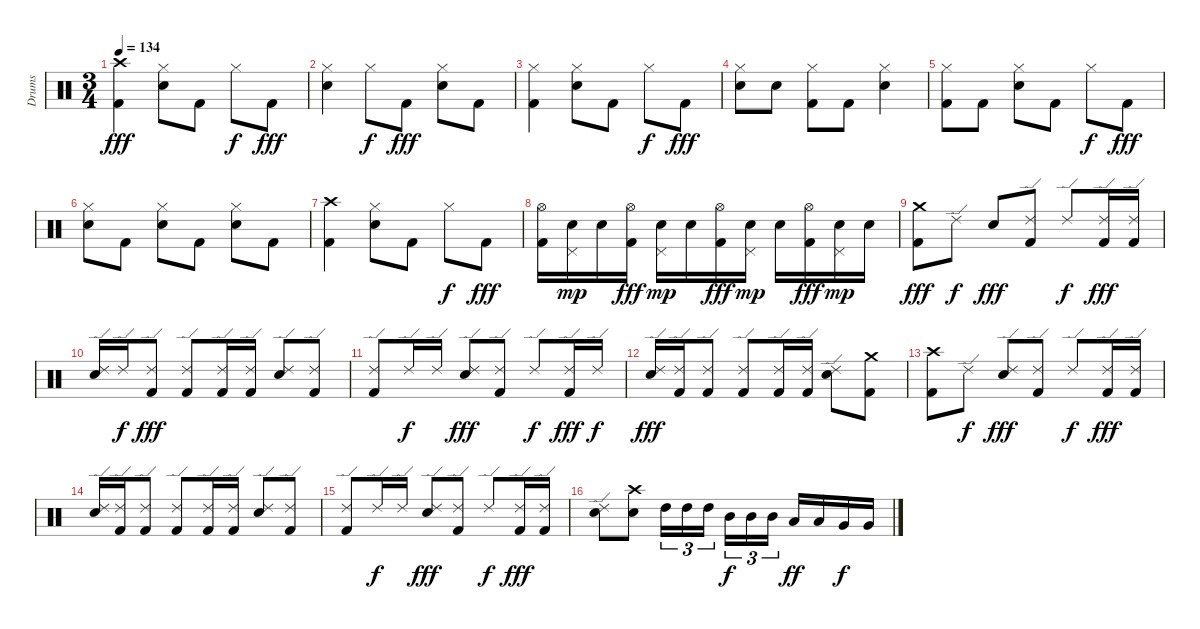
\track ("Drums" "Drums") {instrument percussion}
\staff {score}
\articulation defaults
\ts (3 4)
\tempo 134
\clef neutral
\ks c
("Kick (hit) 2" "Crash high (hit)").4{dy fff} ("Hi-Hat (closed)" "Snare (hit) 2").8 "Kick (hit) 2".8 "Hi-Hat (closed)".8{dy f} "Kick (hit) 2".8{dy fff} |
("Hi-Hat (closed)" "Snare (hit) 2").4 "Hi-Hat (closed)".8{dy f} "Kick (hit) 2".8{dy fff} ("Hi-Hat (closed)" "Snare (hit) 2").8 "Kick (hit) 2".8 |
("Hi-Hat (closed)" "Kick (hit) 2").4 ("Hi-Hat (closed)" "Snare (hit) 2").8 "Kick (hit) 2".8 "Hi-Hat (closed)".8{dy f} "Kick (hit) 2".8{dy fff} |
("Hi-Hat (closed)" "Snare (hit) 2").8 "Snare (hit) 2".8 ("Hi-Hat (closed)" "Kick (hit) 2").8 "Kick (hit) 2".8 ("Hi-Hat (closed)" "Snare (hit) 2").4 |
("Hi-Hat (closed)" "Kick (hit) 2").8 "Kick (hit) 2".8 ("Hi-Hat (closed)" "Snare (hit) 2").8 "Kick (hit) 2".8 "Hi-Hat (closed)".8{dy f} "Kick (hit) 2".8{dy fff} |
("Hi-Hat (closed)" "Snare (hit) 2").8 "Kick (hit) 2".8 ("Hi-Hat (closed)" "Snare (hit) 2").8 "Kick (hit) 2".8 ("Hi-Hat (closed)" "Snare (hit) 2").8 "Kick (hit) 2".8 |
("Kick (hit) 2" "Crash high (hit)").4 ("Hi-Hat (closed)" "Snare (hit) 2").8 "Kick (hit) 2".8 "Hi-Hat (closed)".8{dy f} "Kick (hit) 2".8{dy fff} |
("Hi-Hat (open)" "Kick (hit) 2").16 ("Pedal Hi-Hat (hit)" "Snare (hit) 2").16{dy mp} "Snare (hit) 2".16 ("Hi-Hat (open)" "Kick (hit) 2").16{dy fff} ("Pedal Hi-Hat (hit)" "Snare (hit) 2").16{dy mp} "Snare (hit) 2".16 ("Hi-Hat (open)" "Kick (hit) 2").16{dy fff} ("Pedal Hi-Hat (hit)" "Snare (hit) 2").16{dy mp} "Snare (hit) 2".16 ("Hi-Hat (open)" "Kick (hit) 2").16{dy fff} ("Pedal Hi-Hat (hit)" "Snare (hit) 2").16{dy mp} "Snare (hit) 2".16 |
("Crash medium (hit)" "Kick (hit) 2").8{dy fff} "Ride (edge) 2".8{dy f} "Snare (hit) 2".8{dy fff} ("Ride (edge) 2" "Kick (hit) 2").8 "Ride (edge) 2".8{dy f} ("Ride (edge) 2" "Kick (hit) 2").16{dy fff} ("Ride (edge) 2" "Kick (hit) 2").16 |
("Ride (edge) 2" "Snare (hit) 2").16 "Ride (edge) 2".16{dy f} ("Ride (edge) 2" "Kick (hit) 2").8{dy fff} ("Ride (edge) 2" "Kick (hit) 2").8 ("Ride (edge) 2" "Kick (hit) 2").16 ("Ride (edge) 2" "Kick (hit) 2").16 ("Ride (edge) 2" "Snare (hit) 2").8 ("Ride (edge) 2" "Kick (hit) 2").8 |
("Ride (edge) 2" "Kick (hit) 2").8 "Ride (edge) 2".16{dy f} "Ride (edge) 2".16 ("Ride (edge) 2" "Snare (hit) 2").8{dy fff} ("Ride (edge) 2" "Kick (hit) 2").8 "Ride (edge) 2".8{dy f} ("Ride (edge) 2" "Kick (hit) 2").16{dy fff} "Ride (edge) 2".16{dy f} |
("Ride (edge) 2" "Snare (hit) 2").16{dy fff} ("Ride (edge) 2" "Kick (hit) 2").16 ("Ride (edge) 2" "Kick (hit) 2").8 ("Ride (edge) 2" "Kick (hit) 2").8 ("Ride (edge) 2" "Kick (hit) 2").16 ("Ride (edge) 2" "Kick (hit) 2").16 ("Ride (edge) 2" "Snare (hit) 2").8 ("Crash medium (hit)" "Kick (hit) 2").8 |
("Kick (hit) 2" "Crash high (hit)").8 "Ride (edge) 2".8{dy f} ("Ride (edge) 2" "Snare (hit) 2").8{dy fff} ("Ride (edge) 2" "Kick (hit) 2").8 "Ride (edge) 2".8{dy f} ("Ride (edge) 2" "Kick (hit) 2").16{dy fff} ("Ride (edge) 2" "Kick (hit) 2").16 |
("Ride (edge) 2" "Snare (hit) 2").16 ("Ride (edge) 2" "Kick (hit) 2").16 ("Ride (edge) 2" "Kick (hit) 2").8 ("Ride (edge) 2" "Kick (hit) 2").8 ("Ride (edge) 2" "Kick (hit) 2").16 ("Ride (edge) 2" "Kick (hit) 2").16 ("Ride (edge) 2" "Snare (hit) 2").8 ("Ride (edge) 2" "Kick (hit) 2").8 |
("Ride (edge) 2" "Kick (hit) 2").8 "Ride (edge) 2".16{dy f} "Ride (edge) 2".16 ("Ride (edge) 2" "Snare (hit) 2").8{dy fff} ("Ride (edge) 2" "Kick (hit) 2").8 "Ride (edge) 2".8{dy f} ("Ride (edge) 2" "Kick (hit) 2").16{dy fff} ("Ride (edge) 2" "Kick (hit) 2").16 |
("Ride (edge) 2" "Snare (hit) 2").8 ("Snare (hit) 2" "Crash high (hit)").8 "High Tom (hit)".16{tu (3 2)} "High Tom (hit)".16{tu (3 2)} "High Tom (hit)".16{tu (3 2)} "Mid Tom (hit)".16{tu (3 2) dy f} "Mid Tom (hit)".16{tu (3 2)} "Mid Tom (hit)".16{tu (3 2)} "Low Tom (hit)".16{dy ff} "Low Tom (hit)".16 "Very Low Tom (hit)".16{dy f} "Very Low Tom (hit)".16
